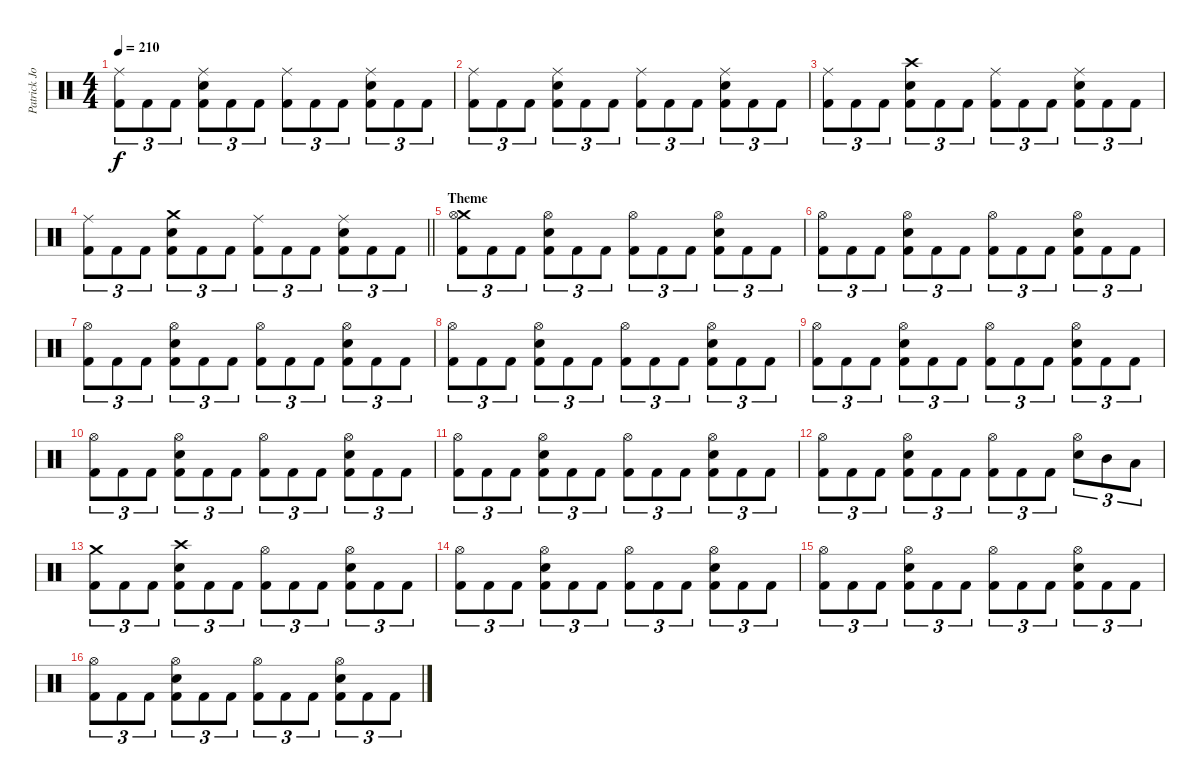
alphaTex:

\track ("Patrick Johansson" "Patrick Jo") {instrument percussion}
\staff {score}
\articulation defaults
\ts (4 4)
\tempo 210
\clef neutral
\ks c
("Ride (middle)" "Kick (hit) 2").8{tu (3 2) dy f} "Kick (hit) 2".8{tu (3 2)} "Kick (hit) 2".8{tu (3 2)} ("Ride (middle)" "Snare (hit) 2" "Kick (hit) 2").8{tu (3 2)} "Kick (hit) 2".8{tu (3 2)} "Kick (hit) 2".8{tu (3 2)} ("Ride (middle)" "Kick (hit) 2").8{tu (3 2)} "Kick (hit) 2".8{tu (3 2)} "Kick (hit) 2".8{tu (3 2)} ("Ride (middle)" "Snare (hit) 2" "Kick (hit) 2").8{tu (3 2)} "Kick (hit) 2".8{tu (3 2)} "Kick (hit) 2".8{tu (3 2)} |
("Ride (middle)" "Kick (hit) 2").8{tu (3 2)} "Kick (hit) 2".8{tu (3 2)} "Kick (hit) 2".8{tu (3 2)} ("Ride (middle)" "Snare (hit) 2" "Kick (hit) 2").8{tu (3 2)} "Kick (hit) 2".8{tu (3 2)} "Kick (hit) 2".8{tu (3 2)} ("Ride (middle)" "Kick (hit) 2").8{tu (3 2)} "Kick (hit) 2".8{tu (3 2)} "Kick (hit) 2".8{tu (3 2)} ("Ride (middle)" "Snare (hit) 2" "Kick (hit) 2").8{tu (3 2)} "Kick (hit) 2".8{tu (3 2)} "Kick (hit) 2".8{tu (3 2)} |
("Ride (middle)" "Kick (hit) 2").8{tu (3 2)} "Kick (hit) 2".8{tu (3 2)} "Kick (hit) 2".8{tu (3 2)} ("Crash high (hit)" "Snare (hit) 2" "Kick (hit) 2").8{tu (3 2)} "Kick (hit) 2".8{tu (3 2)} "Kick (hit) 2".8{tu (3 2)} ("Ride (middle)" "Kick (hit) 2").8{tu (3 2)} "Kick (hit) 2".8{tu (3 2)} "Kick (hit) 2".8{tu (3 2)} ("Ride (middle)" "Snare (hit) 2" "Kick (hit) 2").8{tu (3 2)} "Kick (hit) 2".8{tu (3 2)} "Kick (hit) 2".8{tu (3 2)} |
\barLineRight lightlight
("Ride (middle)" "Kick (hit) 2").8{tu (3 2)} "Kick (hit) 2".8{tu (3 2)} "Kick (hit) 2".8{tu (3 2)} ("Crash medium (hit)" "Snare (hit) 2" "Kick (hit) 2").8{tu (3 2)} "Kick (hit) 2".8{tu (3 2)} "Kick (hit) 2".8{tu (3 2)} ("Ride (middle)" "Kick (hit) 2").8{tu (3 2)} "Kick (hit) 2".8{tu (3 2)} "Kick (hit) 2".8{tu (3 2)} ("Ride (middle)" "Snare (hit) 2" "Kick (hit) 2").8{tu (3 2)} "Kick (hit) 2".8{tu (3 2)} "Kick (hit) 2".8{tu (3 2)} |
\section ("" "Theme")
("Crash medium (hit)" "Hi-Hat (open)" "Kick (hit) 2").8{tu (3 2)} "Kick (hit) 2".8{tu (3 2)} "Kick (hit) 2".8{tu (3 2)} ("Hi-Hat (open)" "Snare (hit) 2" "Kick (hit) 2").8{tu (3 2)} "Kick (hit) 2".8{tu (3 2)} "Kick (hit) 2".8{tu (3 2)} ("Hi-Hat (open)" "Kick (hit) 2").8{tu (3 2)} "Kick (hit) 2".8{tu (3 2)} "Kick (hit) 2".8{tu (3 2)} ("Hi-Hat (open)" "Snare (hit) 2" "Kick (hit) 2").8{tu (3 2)} "Kick (hit) 2".8{tu (3 2)} "Kick (hit) 2".8{tu (3 2)} |
("Hi-Hat (open)" "Kick (hit) 2").8{tu (3 2)} "Kick (hit) 2".8{tu (3 2)} "Kick (hit) 2".8{tu (3 2)} ("Hi-Hat (open)" "Snare (hit) 2" "Kick (hit) 2").8{tu (3 2)} "Kick (hit) 2".8{tu (3 2)} "Kick (hit) 2".8{tu (3 2)} ("Hi-Hat (open)" "Kick (hit) 2").8{tu (3 2)} "Kick (hit) 2".8{tu (3 2)} "Kick (hit) 2".8{tu (3 2)} ("Hi-Hat (open)" "Snare (hit) 2" "Kick (hit) 2").8{tu (3 2)} "Kick (hit) 2".8{tu (3 2)} "Kick (hit) 2".8{tu (3 2)} |
("Hi-Hat (open)" "Kick (hit) 2").8{tu (3 2)} "Kick (hit) 2".8{tu (3 2)} "Kick (hit) 2".8{tu (3 2)} ("Hi-Hat (open)" "Snare (hit) 2" "Kick (hit) 2").8{tu (3 2)} "Kick (hit) 2".8{tu (3 2)} "Kick (hit) 2".8{tu (3 2)} ("Hi-Hat (open)" "Kick (hit) 2").8{tu (3 2)} "Kick (hit) 2".8{tu (3 2)} "Kick (hit) 2".8{tu (3 2)} ("Hi-Hat (open)" "Snare (hit) 2" "Kick (hit) 2").8{tu (3 2)} "Kick (hit) 2".8{tu (3 2)} "Kick (hit) 2".8{tu (3 2)} |
("Hi-Hat (open)" "Kick (hit) 2").8{tu (3 2)} "Kick (hit) 2".8{tu (3 2)} "Kick (hit) 2".8{tu (3 2)} ("Hi-Hat (open)" "Snare (hit) 2" "Kick (hit) 2").8{tu (3 2)} "Kick (hit) 2".8{tu (3 2)} "Kick (hit) 2".8{tu (3 2)} ("Hi-Hat (open)" "Kick (hit) 2").8{tu (3 2)} "Kick (hit) 2".8{tu (3 2)} "Kick (hit) 2".8{tu (3 2)} ("Hi-Hat (open)" "Snare (hit) 2" "Kick (hit) 2").8{tu (3 2)} "Kick (hit) 2".8{tu (3 2)} "Kick (hit) 2".8{tu (3 2)} |
("Hi-Hat (open)" "Kick (hit) 2").8{tu (3 2)} "Kick (hit) 2".8{tu (3 2)} "Kick (hit) 2".8{tu (3 2)} ("Hi-Hat (open)" "Snare (hit) 2" "Kick (hit) 2").8{tu (3 2)} "Kick (hit) 2".8{tu (3 2)} "Kick (hit) 2".8{tu (3 2)} ("Hi-Hat (open)" "Kick (hit) 2").8{tu (3 2)} "Kick (hit) 2".8{tu (3 2)} "Kick (hit) 2".8{tu (3 2)} ("Hi-Hat (open)" "Snare (hit) 2" "Kick (hit) 2").8{tu (3 2)} "Kick (hit) 2".8{tu (3 2)} "Kick (hit) 2".8{tu (3 2)} |
("Hi-Hat (open)" "Kick (hit) 2").8{tu (3 2)} "Kick (hit) 2".8{tu (3 2)} "Kick (hit) 2".8{tu (3 2)} ("Hi-Hat (open)" "Snare (hit) 2" "Kick (hit) 2").8{tu (3 2)} "Kick (hit) 2".8{tu (3 2)} "Kick (hit) 2".8{tu (3 2)} ("Hi-Hat (open)" "Kick (hit) 2").8{tu (3 2)} "Kick (hit) 2".8{tu (3 2)} "Kick (hit) 2".8{tu (3 2)} ("Hi-Hat (open)" "Snare (hit) 2" "Kick (hit) 2").8{tu (3 2)} "Kick (hit) 2".8{tu (3 2)} "Kick (hit) 2".8{tu (3 2)} |
("Hi-Hat (open)" "Kick (hit) 2").8{tu (3 2)} "Kick (hit) 2".8{tu (3 2)} "Kick (hit) 2".8{tu (3 2)} ("Hi-Hat (open)" "Snare (hit) 2" "Kick (hit) 2").8{tu (3 2)} "Kick (hit) 2".8{tu (3 2)} "Kick (hit) 2".8{tu (3 2)} ("Hi-Hat (open)" "Kick (hit) 2").8{tu (3 2)} "Kick (hit) 2".8{tu (3 2)} "Kick (hit) 2".8{tu (3 2)} ("Hi-Hat (open)" "Snare (hit) 2" "Kick (hit) 2").8{tu (3 2)} "Kick (hit) 2".8{tu (3 2)} "Kick (hit) 2".8{tu (3 2)} |
("Hi-Hat (open)" "Kick (hit) 2").8{tu (3 2)} "Kick (hit) 2".8{tu (3 2)} "Kick (hit) 2".8{tu (3 2)} ("Hi-Hat (open)" "Snare (hit) 2" "Kick (hit) 2").8{tu (3 2)} "Kick (hit) 2".8{tu (3 2)} "Kick (hit) 2".8{tu (3 2)} ("Hi-Hat (open)" "Kick (hit) 2").8{tu (3 2)} "Kick (hit) 2".8{tu (3 2)} "Kick (hit) 2".8{tu (3 2)} ("Hi-Hat (open)" "Snare (hit) 2").8{tu (3 2)} "Mid Tom (hit)".8{tu (3 2)} "Low Tom (hit)".8{tu (3 2)} |
("Crash medium (hit)" "Kick (hit) 2").8{tu (3 2)} "Kick (hit) 2".8{tu (3 2)} "Kick (hit) 2".8{tu (3 2)} ("Crash high (hit)" "Snare (hit) 2" "Kick (hit) 2").8{tu (3 2)} "Kick (hit) 2".8{tu (3 2)} "Kick (hit) 2".8{tu (3 2)} ("Hi-Hat (open)" "Kick (hit) 2").8{tu (3 2)} "Kick (hit) 2".8{tu (3 2)} "Kick (hit) 2".8{tu (3 2)} ("Hi-Hat (open)" "Snare (hit) 2" "Kick (hit) 2").8{tu (3 2)} "Kick (hit) 2".8{tu (3 2)} "Kick (hit) 2".8{tu (3 2)} |
("Hi-Hat (open)" "Kick (hit) 2").8{tu (3 2)} "Kick (hit) 2".8{tu (3 2)} "Kick (hit) 2".8{tu (3 2)} ("Hi-Hat (open)" "Snare (hit) 2" "Kick (hit) 2").8{tu (3 2)} "Kick (hit) 2".8{tu (3 2)} "Kick (hit) 2".8{tu (3 2)} ("Hi-Hat (open)" "Kick (hit) 2").8{tu (3 2)} "Kick (hit) 2".8{tu (3 2)} "Kick (hit) 2".8{tu (3 2)} ("Hi-Hat (open)" "Snare (hit) 2" "Kick (hit) 2").8{tu (3 2)} "Kick (hit) 2".8{tu (3 2)} "Kick (hit) 2".8{tu (3 2)} |
("Hi-Hat (open)" "Kick (hit) 2").8{tu (3 2)} "Kick (hit) 2".8{tu (3 2)} "Kick (hit) 2".8{tu (3 2)} ("Hi-Hat (open)" "Snare (hit) 2" "Kick (hit) 2").8{tu (3 2)} "Kick (hit) 2".8{tu (3 2)} "Kick (hit) 2".8{tu (3 2)} ("Hi-Hat (open)" "Kick (hit) 2").8{tu (3 2)} "Kick (hit) 2".8{tu (3 2)} "Kick (hit) 2".8{tu (3 2)} ("Hi-Hat (open)" "Snare (hit) 2" "Kick (hit) 2").8{tu (3 2)} "Kick (hit) 2".8{tu (3 2)} "Kick (hit) 2".8{tu (3 2)} |
("Hi-Hat (open)" "Kick (hit) 2").8{tu (3 2)} "Kick (hit) 2".8{tu (3 2)} "Kick (hit) 2".8{tu (3 2)} ("Hi-Hat (open)" "Snare (hit) 2" "Kick (hit) 2").8{tu (3 2)} "Kick (hit) 2".8{tu (3 2)} "Kick (hit) 2".8{tu (3 2)} ("Hi-Hat (open)" "Kick (hit) 2").8{tu (3 2)} "Kick (hit) 2".8{tu (3 2)} "Kick (hit) 2".8{tu (3 2)} ("Hi-Hat (open)" "Snare (hit) 2" "Kick (hit) 2").8{tu (3 2)} "Kick (hit) 2".8{tu (3 2)} "Kick (hit) 2".8{tu (3 2)}
